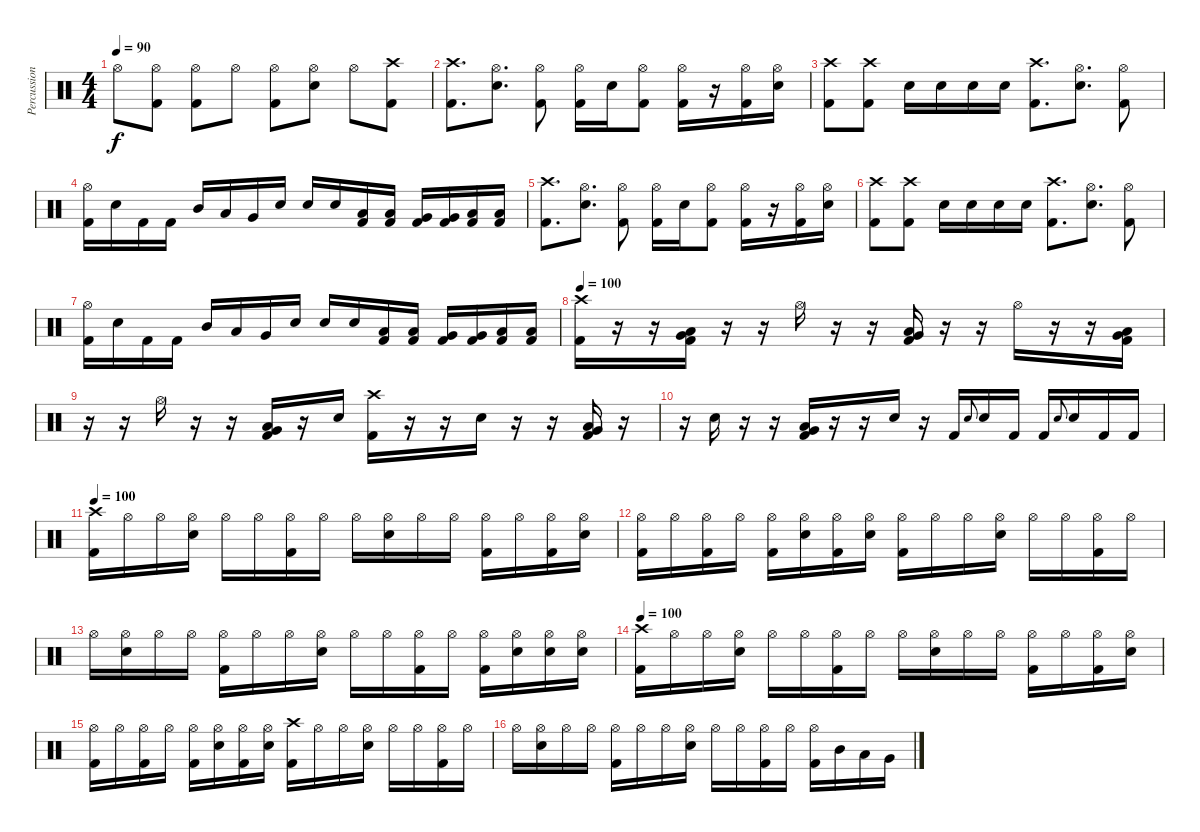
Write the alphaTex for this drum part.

\track ("Percussion" "Percussion") {instrument percussion}
\staff {score}
\articulation defaults
\ts (4 4)
\tempo 90
\clef neutral
\ks c "Hi-Hat (open)".8{dy f}
("Hi-Hat (open)" "Kick (hit) 2").8 ("Hi-Hat (open)" "Kick (hit) 2").8 "Hi-Hat (open)".8 ("Hi-Hat (open)" "Kick (hit) 2").8 ("Hi-Hat (open)" "Snare (hit) 2").8 "Hi-Hat (open)".8 ("Crash high (hit)" "Kick (hit) 2").8 |
("Crash high (hit)" "Kick (hit) 2").8{d} ("Hi-Hat (open)" "Snare (hit) 2").8{d} ("Hi-Hat (open)" "Kick (hit) 2").8 ("Hi-Hat (open)" "Kick (hit) 2").16 "Snare (hit) 2".16 ("Hi-Hat (open)" "Kick (hit) 2").8 ("Hi-Hat (open)" "Kick (hit) 2").16 r.16 ("Hi-Hat (open)" "Kick (hit) 2").16 ("Hi-Hat (open)" "Snare (hit) 2").16 |
("Crash high (hit)" "Kick (hit) 2").8 ("Crash high (hit)" "Kick (hit) 2").8 "Snare (hit) 2".16 "Snare (hit) 2".16 "Snare (hit) 2".16 "Snare (hit) 2".16 ("Crash high (hit)" "Kick (hit) 2").8{d} ("Hi-Hat (open)" "Snare (hit) 2").8{d} ("Hi-Hat (open)" "Kick (hit) 2").8 |
("Hi-Hat (open)" "Kick (hit) 2").16 "Snare (hit) 2".16 "Kick (hit) 2".16 "Kick (hit) 2".16 "Mid Tom (hit)".16 "Low Tom (hit)".16 "Very Low Tom (hit)".16 "Snare (hit) 2".16 "Snare (hit) 2".16 "Snare (hit) 2".16 ("Low Tom (hit)" "Kick (hit) 2").16 ("Low Tom (hit)" "Kick (hit) 2").16 ("Very Low Tom (hit)" "Kick (hit) 2").16 ("Very Low Tom (hit)" "Kick (hit) 2").16 ("Low Floor Tom (hit)" "Kick (hit) 2").16 ("Low Floor Tom (hit)" "Kick (hit) 2").16 |
("Crash high (hit)" "Kick (hit) 2").8{d} ("Hi-Hat (open)" "Snare (hit) 2").8{d} ("Hi-Hat (open)" "Kick (hit) 2").8 ("Hi-Hat (open)" "Kick (hit) 2").16 "Snare (hit) 2".16 ("Hi-Hat (open)" "Kick (hit) 2").8 ("Hi-Hat (open)" "Kick (hit) 2").16 r.16 ("Hi-Hat (open)" "Kick (hit) 2").16 ("Hi-Hat (open)" "Snare (hit) 2").16 |
("Crash high (hit)" "Kick (hit) 2").8 ("Crash high (hit)" "Kick (hit) 2").8 "Snare (hit) 2".16 "Snare (hit) 2".16 "Snare (hit) 2".16 "Snare (hit) 2".16 ("Crash high (hit)" "Kick (hit) 2").8{d} ("Hi-Hat (open)" "Snare (hit) 2").8{d} ("Hi-Hat (open)" "Kick (hit) 2").8 |
("Hi-Hat (open)" "Kick (hit) 2").16 "Snare (hit) 2".16 "Kick (hit) 2".16 "Kick (hit) 2".16 "Mid Tom (hit)".16 "Low Tom (hit)".16 "Very Low Tom (hit)".16 "Snare (hit) 2".16 "Snare (hit) 2".16 "Snare (hit) 2".16 ("Low Tom (hit)" "Kick (hit) 2").16 ("Low Tom (hit)" "Kick (hit) 2").16 ("Very Low Tom (hit)" "Kick (hit) 2").16 ("Very Low Tom (hit)" "Kick (hit) 2").16 ("Low Floor Tom (hit)" "Kick (hit) 2").16 ("Low Floor Tom (hit)" "Kick (hit) 2").16 |
\tempo 100
("Crash high (hit)" "Kick (hit) 2").16 r.16 r.16 ("Very Low Tom (hit)" "Low Floor Tom (hit)" "Kick (hit) 2").16 r.16 r.16 "Hi-Hat (open)".16 r.16 r.16 ("Very Low Tom (hit)" "Low Floor Tom (hit)" "Kick (hit) 2").16 r.16 r.16 "Hi-Hat (open)".16 r.16 r.16 ("Very Low Tom (hit)" "Low Floor Tom (hit)" "Kick (hit) 2").16 |
r.16 r.16 "Hi-Hat (open)".16 r.16 r.16 ("Very Low Tom (hit)" "Low Floor Tom (hit)" "Kick (hit) 2").16 r.16 "Snare (hit) 2".16 ("Crash high (hit)" "Kick (hit) 2").16 r.16 r.16 "Snare (hit) 2".16 r.16 r.16 ("Very Low Tom (hit)" "Low Floor Tom (hit)" "Kick (hit) 2").16 r.16 |
r.16 "Snare (hit) 2".16 r.16 r.16 ("Very Low Tom (hit)" "Low Floor Tom (hit)" "Kick (hit) 2").16 r.16 r.16 "Snare (hit) 2".16 r.16 "Kick (hit) 2".16 "Snare (hit) 2".8{gr onbeat} "Snare (hit) 2".16 "Kick (hit) 2".16 "Kick (hit) 2".16 "Snare (hit) 2".8{gr onbeat} "Snare (hit) 2".16 "Kick (hit) 2".16 "Kick (hit) 2".16 |
\tempo 100
("Crash high (hit)" "Kick (hit) 2").16 "Hi-Hat (open)".16 "Hi-Hat (open)".16 ("Hi-Hat (open)" "Snare (hit) 2").16 "Hi-Hat (open)".16 "Hi-Hat (open)".16 ("Hi-Hat (open)" "Kick (hit) 2").16 "Hi-Hat (open)".16 "Hi-Hat (open)".16 ("Hi-Hat (open)" "Snare (hit) 2").16 "Hi-Hat (open)".16 "Hi-Hat (open)".16 ("Hi-Hat (open)" "Kick (hit) 2").16 "Hi-Hat (open)".16 ("Hi-Hat (open)" "Kick (hit) 2").16 ("Hi-Hat (open)" "Snare (hit) 2").16 |
("Hi-Hat (open)" "Kick (hit) 2").16 "Hi-Hat (open)".16 ("Hi-Hat (open)" "Kick (hit) 2").16 "Hi-Hat (open)".16 ("Hi-Hat (open)" "Kick (hit) 2").16 ("Hi-Hat (open)" "Snare (hit) 2").16 ("Hi-Hat (open)" "Kick (hit) 2").16 ("Hi-Hat (open)" "Snare (hit) 2").16 ("Hi-Hat (open)" "Kick (hit) 2").16 "Hi-Hat (open)".16 "Hi-Hat (open)".16 ("Hi-Hat (open)" "Snare (hit) 2").16 "Hi-Hat (open)".16 "Hi-Hat (open)".16 ("Hi-Hat (open)" "Kick (hit) 2").16 "Hi-Hat (open)".16 |
"Hi-Hat (open)".16 ("Hi-Hat (open)" "Snare (hit) 2").16 "Hi-Hat (open)".16 "Hi-Hat (open)".16 ("Hi-Hat (open)" "Kick (hit) 2").16 "Hi-Hat (open)".16 "Hi-Hat (open)".16 ("Hi-Hat (open)" "Snare (hit) 2").16 "Hi-Hat (open)".16 "Hi-Hat (open)".16 ("Hi-Hat (open)" "Kick (hit) 2").16 "Hi-Hat (open)".16 ("Hi-Hat (open)" "Kick (hit) 2").16 ("Hi-Hat (open)" "Snare (hit) 2").16 ("Hi-Hat (open)" "Snare (hit) 2").16 ("Hi-Hat (open)" "Snare (hit) 2").16 |
\tempo 100
("Crash high (hit)" "Kick (hit) 2").16 "Hi-Hat (open)".16 "Hi-Hat (open)".16 ("Hi-Hat (open)" "Snare (hit) 2").16 "Hi-Hat (open)".16 "Hi-Hat (open)".16 ("Hi-Hat (open)" "Kick (hit) 2").16 "Hi-Hat (open)".16 "Hi-Hat (open)".16 ("Hi-Hat (open)" "Snare (hit) 2").16 "Hi-Hat (open)".16 "Hi-Hat (open)".16 ("Hi-Hat (open)" "Kick (hit) 2").16 "Hi-Hat (open)".16 ("Hi-Hat (open)" "Kick (hit) 2").16 ("Hi-Hat (open)" "Snare (hit) 2").16 |
("Hi-Hat (open)" "Kick (hit) 2").16 "Hi-Hat (open)".16 ("Hi-Hat (open)" "Kick (hit) 2").16 "Hi-Hat (open)".16 ("Hi-Hat (open)" "Kick (hit) 2").16 ("Hi-Hat (open)" "Snare (hit) 2").16 ("Hi-Hat (open)" "Kick (hit) 2").16 ("Hi-Hat (open)" "Snare (hit) 2").16 ("Crash high (hit)" "Kick (hit) 2").16 "Hi-Hat (open)".16 "Hi-Hat (open)".16 ("Hi-Hat (open)" "Snare (hit) 2").16 "Hi-Hat (open)".16 "Hi-Hat (open)".16 ("Hi-Hat (open)" "Kick (hit) 2").16 "Hi-Hat (open)".16 |
"Hi-Hat (open)".16 ("Hi-Hat (open)" "Snare (hit) 2").16 "Hi-Hat (open)".16 "Hi-Hat (open)".16 ("Hi-Hat (open)" "Kick (hit) 2").16 "Hi-Hat (open)".16 "Hi-Hat (open)".16 ("Hi-Hat (open)" "Snare (hit) 2").16 "Hi-Hat (open)".16 "Hi-Hat (open)".16 ("Hi-Hat (open)" "Kick (hit) 2").16 "Hi-Hat (open)".16 ("Hi-Hat (open)" "Kick (hit) 2").16 "Mid Tom (hit)".16 "Low Tom (hit)".16 "Very Low Tom (hit)".16
